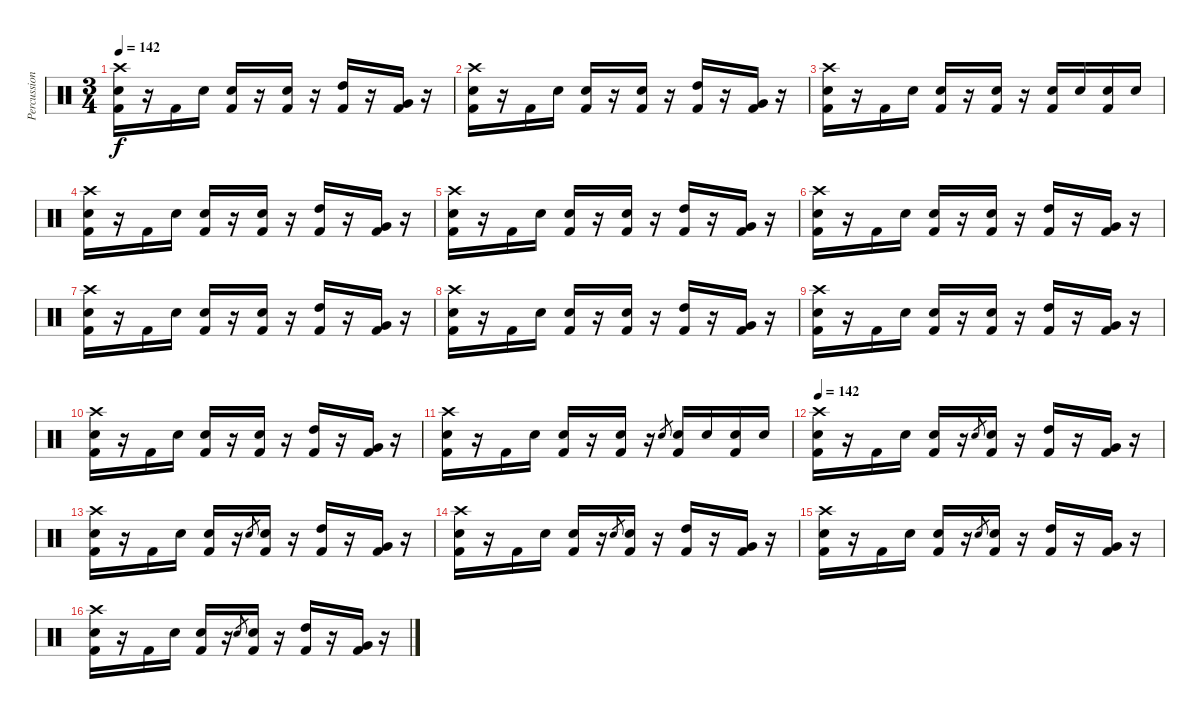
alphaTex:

\track ("Percussion" "Percussion") {instrument percussion}
\staff {score}
\articulation defaults
\ts (3 4)
\tempo 142
\clef neutral
\ks c
("Crash high (hit)" "Snare (hit) 2" "Kick (hit) 2").16{dy f} r.16 "Kick (hit) 2".16 "Snare (hit) 2".16 ("Snare (hit) 2" "Kick (hit) 2").16 r.16 ("Snare (hit) 2" "Kick (hit) 2").16 r.16 ("High Tom (hit)" "Kick (hit) 2").16 r.16 ("Very Low Tom (hit)" "Kick (hit) 2").16 r.16 |
("Crash high (hit)" "Snare (hit) 2" "Kick (hit) 2").16 r.16 "Kick (hit) 2".16 "Snare (hit) 2".16 ("Snare (hit) 2" "Kick (hit) 2").16 r.16 ("Snare (hit) 2" "Kick (hit) 2").16 r.16 ("High Tom (hit)" "Kick (hit) 2").16 r.16 ("Very Low Tom (hit)" "Kick (hit) 2").16 r.16 |
("Crash high (hit)" "Snare (hit) 2" "Kick (hit) 2").16 r.16 "Kick (hit) 2".16 "Snare (hit) 2".16 ("Snare (hit) 2" "Kick (hit) 2").16 r.16 ("Snare (hit) 2" "Kick (hit) 2").16 r.16 ("Snare (hit) 2" "Kick (hit) 2").16 "Snare (hit) 2".16 ("Snare (hit) 2" "Kick (hit) 2").16 "Snare (hit) 2".16 |
("Crash high (hit)" "Snare (hit) 2" "Kick (hit) 2").16 r.16 "Kick (hit) 2".16 "Snare (hit) 2".16 ("Snare (hit) 2" "Kick (hit) 2").16 r.16 ("Snare (hit) 2" "Kick (hit) 2").16 r.16 ("High Tom (hit)" "Kick (hit) 2").16 r.16 ("Very Low Tom (hit)" "Kick (hit) 2").16 r.16 |
("Crash high (hit)" "Snare (hit) 2" "Kick (hit) 2").16 r.16 "Kick (hit) 2".16 "Snare (hit) 2".16 ("Snare (hit) 2" "Kick (hit) 2").16 r.16 ("Snare (hit) 2" "Kick (hit) 2").16 r.16 ("High Tom (hit)" "Kick (hit) 2").16 r.16 ("Very Low Tom (hit)" "Kick (hit) 2").16 r.16 |
("Crash high (hit)" "Snare (hit) 2" "Kick (hit) 2").16 r.16 "Kick (hit) 2".16 "Snare (hit) 2".16 ("Snare (hit) 2" "Kick (hit) 2").16 r.16 ("Snare (hit) 2" "Kick (hit) 2").16 r.16 ("High Tom (hit)" "Kick (hit) 2").16 r.16 ("Very Low Tom (hit)" "Kick (hit) 2").16 r.16 |
("Crash high (hit)" "Snare (hit) 2" "Kick (hit) 2").16 r.16 "Kick (hit) 2".16 "Snare (hit) 2".16 ("Snare (hit) 2" "Kick (hit) 2").16 r.16 ("Snare (hit) 2" "Kick (hit) 2").16 r.16 ("High Tom (hit)" "Kick (hit) 2").16 r.16 ("Very Low Tom (hit)" "Kick (hit) 2").16 r.16 |
("Crash high (hit)" "Snare (hit) 2" "Kick (hit) 2").16 r.16 "Kick (hit) 2".16 "Snare (hit) 2".16 ("Snare (hit) 2" "Kick (hit) 2").16 r.16 ("Snare (hit) 2" "Kick (hit) 2").16 r.16 ("High Tom (hit)" "Kick (hit) 2").16 r.16 ("Very Low Tom (hit)" "Kick (hit) 2").16 r.16 |
("Crash high (hit)" "Snare (hit) 2" "Kick (hit) 2").16 r.16 "Kick (hit) 2".16 "Snare (hit) 2".16 ("Snare (hit) 2" "Kick (hit) 2").16 r.16 ("Snare (hit) 2" "Kick (hit) 2").16 r.16 ("High Tom (hit)" "Kick (hit) 2").16 r.16 ("Very Low Tom (hit)" "Kick (hit) 2").16 r.16 |
("Crash high (hit)" "Snare (hit) 2" "Kick (hit) 2").16 r.16 "Kick (hit) 2".16 "Snare (hit) 2".16 ("Snare (hit) 2" "Kick (hit) 2").16 r.16 ("Snare (hit) 2" "Kick (hit) 2").16 r.16 ("High Tom (hit)" "Kick (hit) 2").16 r.16 ("Very Low Tom (hit)" "Kick (hit) 2").16 r.16 |
("Crash high (hit)" "Snare (hit) 2" "Kick (hit) 2").16 r.16 "Kick (hit) 2".16 "Snare (hit) 2".16 ("Snare (hit) 2" "Kick (hit) 2").16 r.16 ("Snare (hit) 2" "Kick (hit) 2").16 r.16 "Snare (hit) 2".8{gr} ("Snare (hit) 2" "Kick (hit) 2").16 "Snare (hit) 2".16 ("Snare (hit) 2" "Kick (hit) 2").16 "Snare (hit) 2".16 |
\tempo 142
("Crash high (hit)" "Snare (hit) 2" "Kick (hit) 2").16 r.16 "Kick (hit) 2".16 "Snare (hit) 2".16 ("Snare (hit) 2" "Kick (hit) 2").16 r.16 "Snare (hit) 2".8{gr} ("Snare (hit) 2" "Kick (hit) 2").16 r.16 ("High Tom (hit)" "Kick (hit) 2").16 r.16 ("Very Low Tom (hit)" "Kick (hit) 2").16 r.16 |
("Crash high (hit)" "Snare (hit) 2" "Kick (hit) 2").16 r.16 "Kick (hit) 2".16 "Snare (hit) 2".16 ("Snare (hit) 2" "Kick (hit) 2").16 r.16 "Snare (hit) 2".8{gr} ("Snare (hit) 2" "Kick (hit) 2").16 r.16 ("High Tom (hit)" "Kick (hit) 2").16 r.16 ("Very Low Tom (hit)" "Kick (hit) 2").16 r.16 |
("Crash high (hit)" "Snare (hit) 2" "Kick (hit) 2").16 r.16 "Kick (hit) 2".16 "Snare (hit) 2".16 ("Snare (hit) 2" "Kick (hit) 2").16 r.16 "Snare (hit) 2".8{gr} ("Snare (hit) 2" "Kick (hit) 2").16 r.16 ("High Tom (hit)" "Kick (hit) 2").16 r.16 ("Very Low Tom (hit)" "Kick (hit) 2").16 r.16 |
("Crash high (hit)" "Snare (hit) 2" "Kick (hit) 2").16 r.16 "Kick (hit) 2".16 "Snare (hit) 2".16 ("Snare (hit) 2" "Kick (hit) 2").16 r.16 "Snare (hit) 2".8{gr} ("Snare (hit) 2" "Kick (hit) 2").16 r.16 ("High Tom (hit)" "Kick (hit) 2").16 r.16 ("Very Low Tom (hit)" "Kick (hit) 2").16 r.16 |
("Crash high (hit)" "Snare (hit) 2" "Kick (hit) 2").16 r.16 "Kick (hit) 2".16 "Snare (hit) 2".16 ("Snare (hit) 2" "Kick (hit) 2").16 r.16 "Snare (hit) 2".8{gr} ("Snare (hit) 2" "Kick (hit) 2").16 r.16 ("High Tom (hit)" "Kick (hit) 2").16 r.16 ("Very Low Tom (hit)" "Kick (hit) 2").16 r.16
